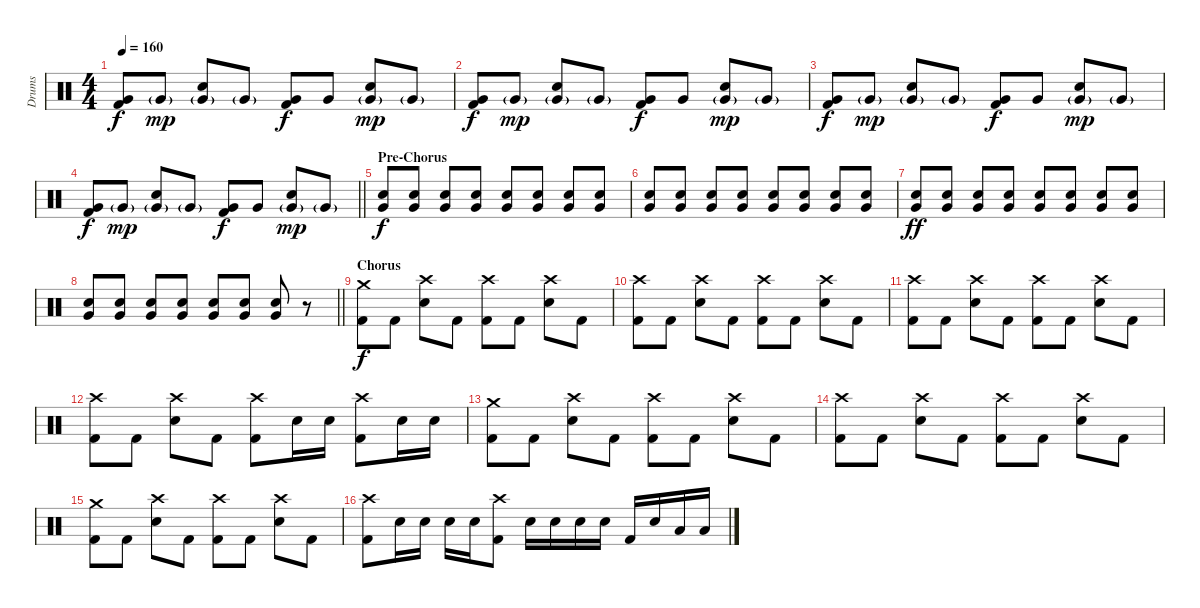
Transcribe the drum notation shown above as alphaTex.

\track ("Drums" "Drums") {instrument percussion}
\staff {score}
\articulation defaults
\ts (4 4)
\tempo 160
\clef neutral
\ks c
("Very Low Tom (hit)" "Kick (hit) 2").8{dy f} "Very Low Tom (hit)"{g}.8{dy mp} ("Electric Snare (hit)" "Very Low Tom (hit)"{g}).8 "Very Low Tom (hit)"{g}.8 ("Very Low Tom (hit)" "Kick (hit) 2").8{dy f} "Very Low Tom (hit)".8 ("Electric Snare (hit)" "Very Low Tom (hit)"{g}).8{dy mp} "Very Low Tom (hit)"{g}.8 |
("Very Low Tom (hit)" "Kick (hit) 2").8{dy f} "Very Low Tom (hit)"{g}.8{dy mp} ("Electric Snare (hit)" "Very Low Tom (hit)"{g}).8 "Very Low Tom (hit)"{g}.8 ("Very Low Tom (hit)" "Kick (hit) 2").8{dy f} "Very Low Tom (hit)".8 ("Electric Snare (hit)" "Very Low Tom (hit)"{g}).8{dy mp} "Very Low Tom (hit)"{g}.8 |
("Very Low Tom (hit)" "Kick (hit) 2").8{dy f} "Very Low Tom (hit)"{g}.8{dy mp} ("Electric Snare (hit)" "Very Low Tom (hit)"{g}).8 "Very Low Tom (hit)"{g}.8 ("Very Low Tom (hit)" "Kick (hit) 2").8{dy f} "Very Low Tom (hit)".8 ("Electric Snare (hit)" "Very Low Tom (hit)"{g}).8{dy mp} "Very Low Tom (hit)"{g}.8 |
\barLineRight lightlight
("Very Low Tom (hit)" "Kick (hit) 2").8{dy f} "Very Low Tom (hit)"{g}.8{dy mp} ("Electric Snare (hit)" "Very Low Tom (hit)"{g}).8 "Very Low Tom (hit)"{g}.8 ("Very Low Tom (hit)" "Kick (hit) 2").8{dy f} "Very Low Tom (hit)".8 ("Electric Snare (hit)" "Very Low Tom (hit)"{g}).8{dy mp} "Very Low Tom (hit)"{g}.8 |
\section ("" "Pre-Chorus")
("Electric Snare (hit)" "Very Low Tom (hit)").8{dy f} ("Electric Snare (hit)" "Very Low Tom (hit)").8 ("Electric Snare (hit)" "Very Low Tom (hit)").8 ("Electric Snare (hit)" "Very Low Tom (hit)").8 ("Electric Snare (hit)" "Very Low Tom (hit)").8 ("Electric Snare (hit)" "Very Low Tom (hit)").8 ("Electric Snare (hit)" "Very Low Tom (hit)").8 ("Electric Snare (hit)" "Very Low Tom (hit)").8 |
("Electric Snare (hit)" "Very Low Tom (hit)").8 ("Electric Snare (hit)" "Very Low Tom (hit)").8 ("Electric Snare (hit)" "Very Low Tom (hit)").8 ("Electric Snare (hit)" "Very Low Tom (hit)").8 ("Electric Snare (hit)" "Very Low Tom (hit)").8 ("Electric Snare (hit)" "Very Low Tom (hit)").8 ("Electric Snare (hit)" "Very Low Tom (hit)").8 ("Electric Snare (hit)" "Very Low Tom (hit)").8 |
("Electric Snare (hit)" "Very Low Tom (hit)").8{dy ff} ("Electric Snare (hit)" "Very Low Tom (hit)").8 ("Electric Snare (hit)" "Very Low Tom (hit)").8 ("Electric Snare (hit)" "Very Low Tom (hit)").8 ("Electric Snare (hit)" "Very Low Tom (hit)").8 ("Electric Snare (hit)" "Very Low Tom (hit)").8 ("Electric Snare (hit)" "Very Low Tom (hit)").8 ("Electric Snare (hit)" "Very Low Tom (hit)").8 |
\barLineRight lightlight
("Electric Snare (hit)" "Very Low Tom (hit)").8 ("Electric Snare (hit)" "Very Low Tom (hit)").8 ("Electric Snare (hit)" "Very Low Tom (hit)").8 ("Electric Snare (hit)" "Very Low Tom (hit)").8 ("Electric Snare (hit)" "Very Low Tom (hit)").8 ("Electric Snare (hit)" "Very Low Tom (hit)").8 ("Electric Snare (hit)" "Very Low Tom (hit)").8 r.8 |
\section ("" "Chorus")
("Crash medium (hit)" "Kick (hit) 2").8{dy f} "Kick (hit) 2".8 ("Crash high (hit)" "Electric Snare (hit)").8 "Kick (hit) 2".8 ("Crash high (hit)" "Kick (hit) 2").8 "Kick (hit) 2".8 ("Crash high (hit)" "Electric Snare (hit)").8 "Kick (hit) 2".8 |
("Crash high (hit)" "Kick (hit) 2").8 "Kick (hit) 2".8 ("Crash high (hit)" "Electric Snare (hit)").8 "Kick (hit) 2".8 ("Crash high (hit)" "Kick (hit) 2").8 "Kick (hit) 2".8 ("Crash high (hit)" "Electric Snare (hit)").8 "Kick (hit) 2".8 |
("Crash high (hit)" "Kick (hit) 2").8 "Kick (hit) 2".8 ("Crash high (hit)" "Electric Snare (hit)").8 "Kick (hit) 2".8 ("Crash high (hit)" "Kick (hit) 2").8 "Kick (hit) 2".8 ("Crash high (hit)" "Electric Snare (hit)").8 "Kick (hit) 2".8 |
("Crash high (hit)" "Kick (hit) 2").8 "Kick (hit) 2".8 ("Crash high (hit)" "Electric Snare (hit)").8 "Kick (hit) 2".8 ("Crash high (hit)" "Kick (hit) 2").8 "Electric Snare (hit)".16 "Electric Snare (hit)".16 ("Crash high (hit)" "Kick (hit) 2").8 "Electric Snare (hit)".16 "Electric Snare (hit)".16 |
("Crash medium (hit)" "Kick (hit) 2").8 "Kick (hit) 2".8 ("Crash high (hit)" "Electric Snare (hit)").8 "Kick (hit) 2".8 ("Crash high (hit)" "Kick (hit) 2").8 "Kick (hit) 2".8 ("Crash high (hit)" "Electric Snare (hit)").8 "Kick (hit) 2".8 |
("Crash high (hit)" "Kick (hit) 2").8 "Kick (hit) 2".8 ("Crash high (hit)" "Electric Snare (hit)").8 "Kick (hit) 2".8 ("Crash high (hit)" "Kick (hit) 2").8 "Kick (hit) 2".8 ("Crash high (hit)" "Electric Snare (hit)").8 "Kick (hit) 2".8 |
("Crash medium (hit)" "Kick (hit) 2").8 "Kick (hit) 2".8 ("Crash high (hit)" "Electric Snare (hit)").8 "Kick (hit) 2".8 ("Crash high (hit)" "Kick (hit) 2").8 "Kick (hit) 2".8 ("Crash high (hit)" "Electric Snare (hit)").8 "Kick (hit) 2".8 |
("Crash high (hit)" "Kick (hit) 2").8 "Electric Snare (hit)".16 "Electric Snare (hit)".16 "Electric Snare (hit)".16 "Electric Snare (hit)".16 ("Crash high (hit)" "Kick (hit) 2").8 "Electric Snare (hit)".16 "Electric Snare (hit)".16 "Electric Snare (hit)".16 "Electric Snare (hit)".16 "Kick (hit) 2".16 "Electric Snare (hit)".16 "Low Tom (hit)".16 "Low Tom (hit)".16
